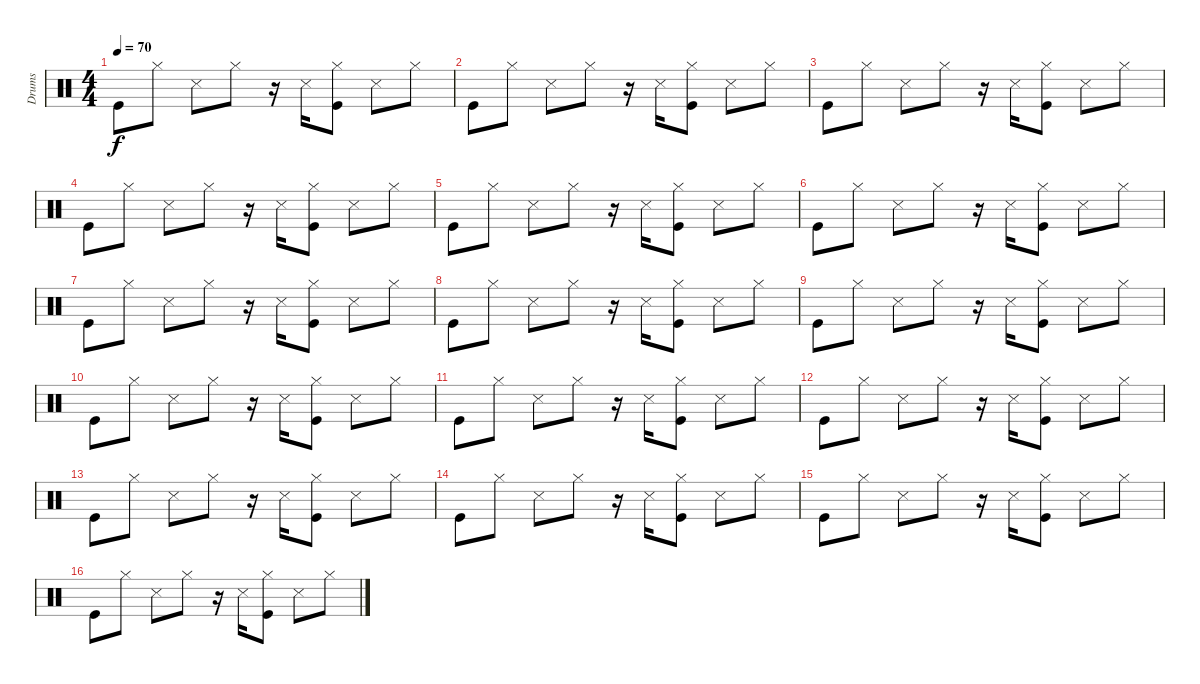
\track ("Drums" "Drums") {instrument percussion}
\staff {score}
\articulation defaults
\ts (4 4)
\tempo 70
\clef neutral
\ks c "Kick (hit)".8{dy f} "Hi-Hat (closed)".8 "Snare (side stick) 3".8 "Hi-Hat (closed)".8
r.16 "Snare (side stick) 3".16 ("Hi-Hat (closed)" "Kick (hit)").8 "Snare (side stick) 3".8 "Hi-Hat (closed)".8 |
"Kick (hit)".8 "Hi-Hat (closed)".8 "Snare (side stick) 3".8 "Hi-Hat (closed)".8 r.16 "Snare (side stick) 3".16 ("Hi-Hat (closed)" "Kick (hit)").8 "Snare (side stick) 3".8 "Hi-Hat (closed)".8 |
"Kick (hit)".8 "Hi-Hat (closed)".8 "Snare (side stick) 3".8 "Hi-Hat (closed)".8 r.16 "Snare (side stick) 3".16 ("Hi-Hat (closed)" "Kick (hit)").8 "Snare (side stick) 3".8 "Hi-Hat (closed)".8 |
"Kick (hit)".8 "Hi-Hat (closed)".8 "Snare (side stick) 3".8 "Hi-Hat (closed)".8 r.16 "Snare (side stick) 3".16 ("Hi-Hat (closed)" "Kick (hit)").8 "Snare (side stick) 3".8 "Hi-Hat (closed)".8 |
"Kick (hit)".8 "Hi-Hat (closed)".8 "Snare (side stick) 3".8 "Hi-Hat (closed)".8 r.16 "Snare (side stick) 3".16 ("Hi-Hat (closed)" "Kick (hit)").8 "Snare (side stick) 3".8 "Hi-Hat (closed)".8 |
"Kick (hit)".8 "Hi-Hat (closed)".8 "Snare (side stick) 3".8 "Hi-Hat (closed)".8 r.16 "Snare (side stick) 3".16 ("Hi-Hat (closed)" "Kick (hit)").8 "Snare (side stick) 3".8 "Hi-Hat (closed)".8 |
"Kick (hit)".8 "Hi-Hat (closed)".8 "Snare (side stick) 3".8 "Hi-Hat (closed)".8 r.16 "Snare (side stick) 3".16 ("Hi-Hat (closed)" "Kick (hit)").8 "Snare (side stick) 3".8 "Hi-Hat (closed)".8 |
"Kick (hit)".8 "Hi-Hat (closed)".8 "Snare (side stick) 3".8 "Hi-Hat (closed)".8 r.16 "Snare (side stick) 3".16 ("Hi-Hat (closed)" "Kick (hit)").8 "Snare (side stick) 3".8 "Hi-Hat (closed)".8 |
"Kick (hit)".8 "Hi-Hat (closed)".8 "Snare (side stick) 3".8 "Hi-Hat (closed)".8 r.16 "Snare (side stick) 3".16 ("Hi-Hat (closed)" "Kick (hit)").8 "Snare (side stick) 3".8 "Hi-Hat (closed)".8 |
"Kick (hit)".8 "Hi-Hat (closed)".8 "Snare (side stick) 3".8 "Hi-Hat (closed)".8 r.16 "Snare (side stick) 3".16 ("Hi-Hat (closed)" "Kick (hit)").8 "Snare (side stick) 3".8 "Hi-Hat (closed)".8 |
"Kick (hit)".8 "Hi-Hat (closed)".8 "Snare (side stick) 3".8 "Hi-Hat (closed)".8 r.16 "Snare (side stick) 3".16 ("Hi-Hat (closed)" "Kick (hit)").8 "Snare (side stick) 3".8 "Hi-Hat (closed)".8 |
"Kick (hit)".8 "Hi-Hat (closed)".8 "Snare (side stick) 3".8 "Hi-Hat (closed)".8 r.16 "Snare (side stick) 3".16 ("Hi-Hat (closed)" "Kick (hit)").8 "Snare (side stick) 3".8 "Hi-Hat (closed)".8 |
"Kick (hit)".8 "Hi-Hat (closed)".8 "Snare (side stick) 3".8 "Hi-Hat (closed)".8 r.16 "Snare (side stick) 3".16 ("Hi-Hat (closed)" "Kick (hit)").8 "Snare (side stick) 3".8 "Hi-Hat (closed)".8 |
"Kick (hit)".8 "Hi-Hat (closed)".8 "Snare (side stick) 3".8 "Hi-Hat (closed)".8 r.16 "Snare (side stick) 3".16 ("Hi-Hat (closed)" "Kick (hit)").8 "Snare (side stick) 3".8 "Hi-Hat (closed)".8 |
"Kick (hit)".8 "Hi-Hat (closed)".8 "Snare (side stick) 3".8 "Hi-Hat (closed)".8 r.16 "Snare (side stick) 3".16 ("Hi-Hat (closed)" "Kick (hit)").8 "Snare (side stick) 3".8 "Hi-Hat (closed)".8 |
"Kick (hit)".8 "Hi-Hat (closed)".8 "Snare (side stick) 3".8 "Hi-Hat (closed)".8 r.16 "Snare (side stick) 3".16 ("Hi-Hat (closed)" "Kick (hit)").8 "Snare (side stick) 3".8 "Hi-Hat (closed)".8
